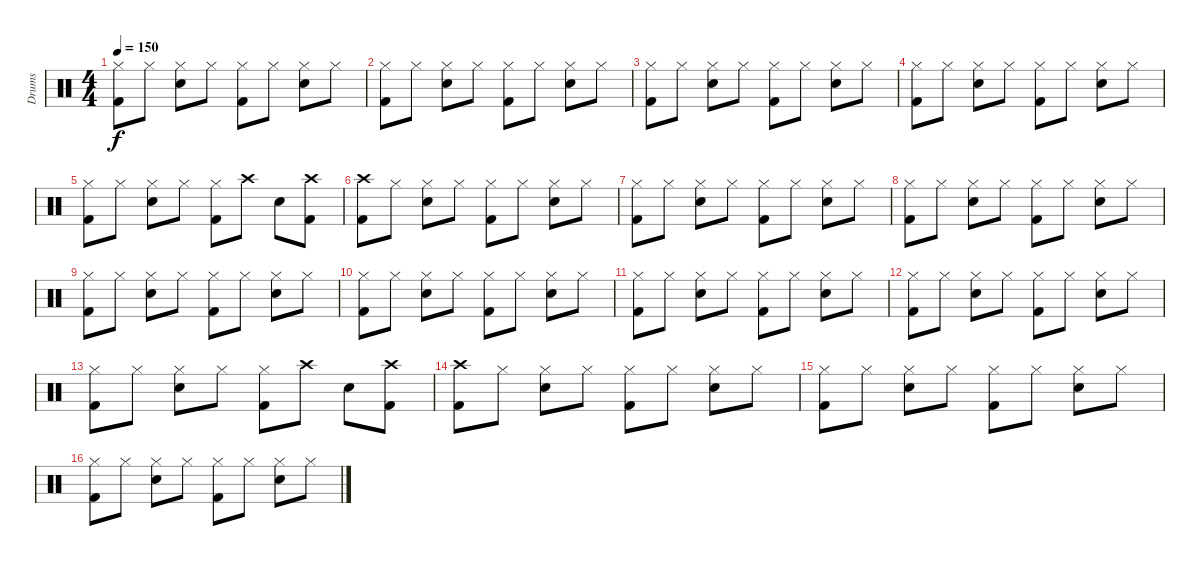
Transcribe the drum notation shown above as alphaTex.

\track ("Drums" "Drums") {instrument percussion}
\staff {score}
\articulation defaults
\ts (4 4)
\tempo 150
\clef neutral
\ks c
("Hi-Hat (closed)" "Kick (hit) 2").8{dy f} "Hi-Hat (closed)".8 ("Hi-Hat (closed)" "Electric Snare (hit)").8 "Hi-Hat (closed)".8 ("Hi-Hat (closed)" "Kick (hit) 2").8 "Hi-Hat (closed)".8 ("Hi-Hat (closed)" "Electric Snare (hit)").8 "Hi-Hat (closed)".8 |
("Hi-Hat (closed)" "Kick (hit) 2").8 "Hi-Hat (closed)".8 ("Hi-Hat (closed)" "Electric Snare (hit)").8 "Hi-Hat (closed)".8 ("Hi-Hat (closed)" "Kick (hit) 2").8 "Hi-Hat (closed)".8 ("Hi-Hat (closed)" "Electric Snare (hit)").8 "Hi-Hat (closed)".8 |
("Hi-Hat (closed)" "Kick (hit) 2").8 "Hi-Hat (closed)".8 ("Hi-Hat (closed)" "Electric Snare (hit)").8 "Hi-Hat (closed)".8 ("Hi-Hat (closed)" "Kick (hit) 2").8 "Hi-Hat (closed)".8 ("Hi-Hat (closed)" "Electric Snare (hit)").8 "Hi-Hat (closed)".8 |
("Hi-Hat (closed)" "Kick (hit) 2").8 "Hi-Hat (closed)".8 ("Hi-Hat (closed)" "Electric Snare (hit)").8 "Hi-Hat (closed)".8 ("Hi-Hat (closed)" "Kick (hit) 2").8 "Hi-Hat (closed)".8 ("Hi-Hat (closed)" "Electric Snare (hit)").8 "Hi-Hat (closed)".8 |
("Hi-Hat (closed)" "Kick (hit) 2").8 "Hi-Hat (closed)".8 ("Hi-Hat (closed)" "Electric Snare (hit)").8 "Hi-Hat (closed)".8 ("Hi-Hat (closed)" "Kick (hit) 2").8 "Crash high (hit)".8 "Electric Snare (hit)".8 ("Crash high (hit)" "Kick (hit) 2").8 |
("Crash high (hit)" "Kick (hit) 2").8 "Hi-Hat (closed)".8 ("Hi-Hat (closed)" "Electric Snare (hit)").8 "Hi-Hat (closed)".8 ("Hi-Hat (closed)" "Kick (hit) 2").8 "Hi-Hat (closed)".8 ("Hi-Hat (closed)" "Electric Snare (hit)").8 "Hi-Hat (closed)".8 |
("Hi-Hat (closed)" "Kick (hit) 2").8 "Hi-Hat (closed)".8 ("Hi-Hat (closed)" "Electric Snare (hit)").8 "Hi-Hat (closed)".8 ("Hi-Hat (closed)" "Kick (hit) 2").8 "Hi-Hat (closed)".8 ("Hi-Hat (closed)" "Electric Snare (hit)").8 "Hi-Hat (closed)".8 |
("Hi-Hat (closed)" "Kick (hit) 2").8 "Hi-Hat (closed)".8 ("Hi-Hat (closed)" "Electric Snare (hit)").8 "Hi-Hat (closed)".8 ("Hi-Hat (closed)" "Kick (hit) 2").8 "Hi-Hat (closed)".8 ("Hi-Hat (closed)" "Electric Snare (hit)").8 "Hi-Hat (closed)".8 |
("Hi-Hat (closed)" "Kick (hit) 2").8 "Hi-Hat (closed)".8 ("Hi-Hat (closed)" "Electric Snare (hit)").8 "Hi-Hat (closed)".8 ("Hi-Hat (closed)" "Kick (hit) 2").8 "Hi-Hat (closed)".8 ("Hi-Hat (closed)" "Electric Snare (hit)").8 "Hi-Hat (closed)".8 |
("Hi-Hat (closed)" "Kick (hit) 2").8 "Hi-Hat (closed)".8 ("Hi-Hat (closed)" "Electric Snare (hit)").8 "Hi-Hat (closed)".8 ("Hi-Hat (closed)" "Kick (hit) 2").8 "Hi-Hat (closed)".8 ("Hi-Hat (closed)" "Electric Snare (hit)").8 "Hi-Hat (closed)".8 |
("Hi-Hat (closed)" "Kick (hit) 2").8 "Hi-Hat (closed)".8 ("Hi-Hat (closed)" "Electric Snare (hit)").8 "Hi-Hat (closed)".8 ("Hi-Hat (closed)" "Kick (hit) 2").8 "Hi-Hat (closed)".8 ("Hi-Hat (closed)" "Electric Snare (hit)").8 "Hi-Hat (closed)".8 |
("Hi-Hat (closed)" "Kick (hit) 2").8 "Hi-Hat (closed)".8 ("Hi-Hat (closed)" "Electric Snare (hit)").8 "Hi-Hat (closed)".8 ("Hi-Hat (closed)" "Kick (hit) 2").8 "Hi-Hat (closed)".8 ("Hi-Hat (closed)" "Electric Snare (hit)").8 "Hi-Hat (closed)".8 |
("Hi-Hat (closed)" "Kick (hit) 2").8 "Hi-Hat (closed)".8 ("Hi-Hat (closed)" "Electric Snare (hit)").8 "Hi-Hat (closed)".8 ("Hi-Hat (closed)" "Kick (hit) 2").8 "Crash high (hit)".8 "Electric Snare (hit)".8 ("Crash high (hit)" "Kick (hit) 2").8 |
("Crash high (hit)" "Kick (hit) 2").8 "Hi-Hat (closed)".8 ("Hi-Hat (closed)" "Electric Snare (hit)").8 "Hi-Hat (closed)".8 ("Hi-Hat (closed)" "Kick (hit) 2").8 "Hi-Hat (closed)".8 ("Hi-Hat (closed)" "Electric Snare (hit)").8 "Hi-Hat (closed)".8 |
("Hi-Hat (closed)" "Kick (hit) 2").8 "Hi-Hat (closed)".8 ("Hi-Hat (closed)" "Electric Snare (hit)").8 "Hi-Hat (closed)".8 ("Hi-Hat (closed)" "Kick (hit) 2").8 "Hi-Hat (closed)".8 ("Hi-Hat (closed)" "Electric Snare (hit)").8 "Hi-Hat (closed)".8 |
("Hi-Hat (closed)" "Kick (hit) 2").8 "Hi-Hat (closed)".8 ("Hi-Hat (closed)" "Electric Snare (hit)").8 "Hi-Hat (closed)".8 ("Hi-Hat (closed)" "Kick (hit) 2").8 "Hi-Hat (closed)".8 ("Hi-Hat (closed)" "Electric Snare (hit)").8 "Hi-Hat (closed)".8
